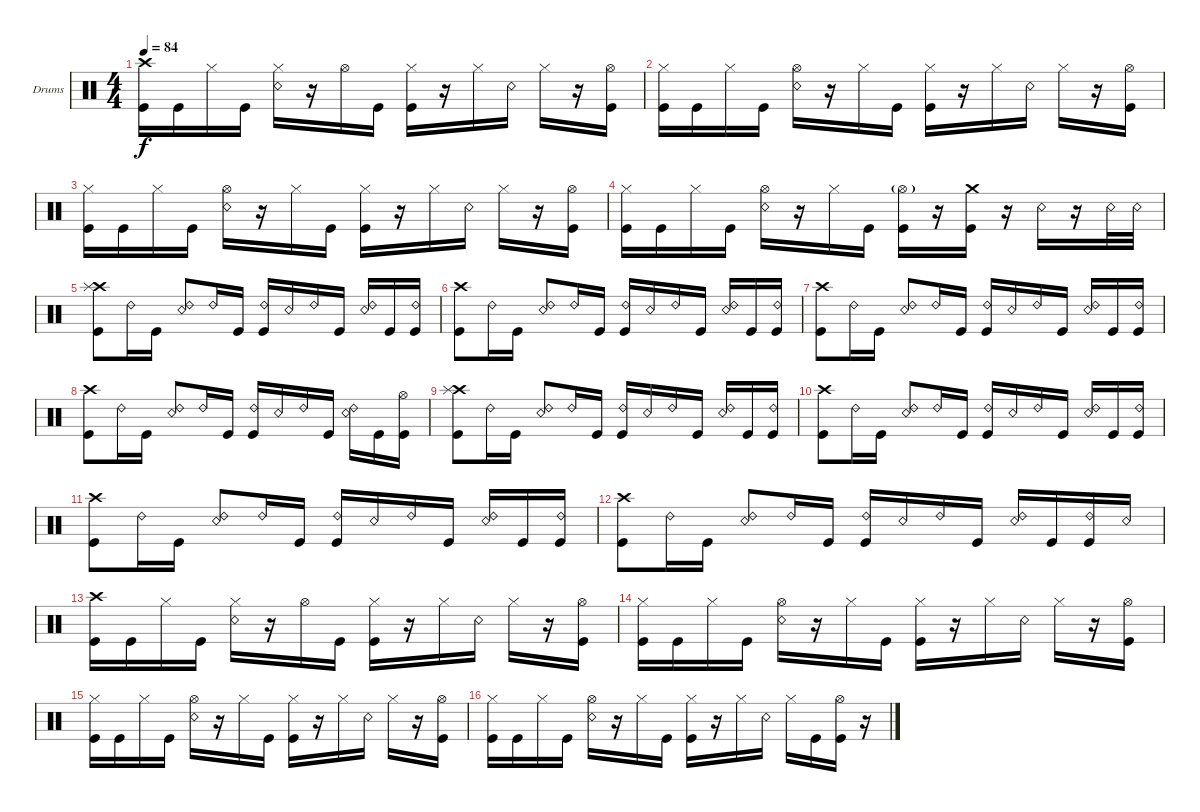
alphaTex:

\defaultSystemsLayout 4
\bracketExtendMode groupsimilarinstruments
\firstSystemTrackNameOrientation horizontal
\otherSystemsTrackNameOrientation horizontal
\track ("Drumkit" "Drums") {instrument percussion}
\staff {score}
\articulation defaults
\ts (4 4)
\tempo 84
\clef neutral
\scale
0.333333
\ks c
("Kick (hit)" "Crash high (hit)").16{dy f} "Kick (hit)".16 "Hi-Hat (closed)".16 "Kick (hit)".16 ("Snare (rim shot)" "Hi-Hat (closed)").16 r.16 "Hi-Hat (open)".16 "Kick (hit)".16 ("Kick (hit)" "Hi-Hat (closed)").16 r.16 "Hi-Hat (closed)".16 "Snare (rim shot)".16 "Hi-Hat (closed)".16 r.16 ("Kick (hit)" "Hi-Hat (open)").16 |
\scale
0.333333 ("Kick (hit)" "Hi-Hat (closed)").16 "Kick (hit)".16 "Hi-Hat (closed)".16 "Kick (hit)".16 ("Snare (rim shot)" "Hi-Hat (open)").16 r.16 "Hi-Hat (closed)".16 "Kick (hit)".16 ("Kick (hit)" "Hi-Hat (closed)").16 r.16 "Hi-Hat (closed)".16 "Snare (rim shot)".16 "Hi-Hat (closed)".16 r.16 ("Kick (hit)" "Hi-Hat (open)").16 |
\scale
0.333333 ("Kick (hit)" "Hi-Hat (closed)").16 "Kick (hit)".16 "Hi-Hat (closed)".16 "Kick (hit)".16 ("Snare (rim shot)" "Hi-Hat (open)").16 r.16 "Hi-Hat (closed)".16 "Kick (hit)".16 ("Kick (hit)" "Hi-Hat (closed)").16 r.16 "Hi-Hat (closed)".16 "Snare (rim shot)".16 "Hi-Hat (closed)".16 r.16 ("Kick (hit)" "Hi-Hat (open)").16 |
\scale
0.333333 ("Kick (hit)" "Hi-Hat (closed)").16 "Kick (hit)".16 "Hi-Hat (closed)".16 "Kick (hit)".16 ("Snare (rim shot)" "Hi-Hat (open)").16 r.16 "Hi-Hat (closed)".16 "Kick (hit)".16 ("Kick (hit)" "Hi-Hat (open)"{g}).16 r.16 ("Kick (hit)" "Crash medium (hit)").16 r.16 "Snare (rim shot)".16 r.16 "Snare (rim shot)".32 "Snare (rim shot)".32 |
\scale
0.333333 ("Kick (hit)" "Crash high (hit)" "Splash (hit)").8 "Ride (bell) 2".16 "Kick (hit)".16 ("Snare (rim shot)" "Ride (bell) 2").8 "Ride (bell) 2".16 "Kick (hit)".16 ("Kick (hit)" "Ride (bell) 2").16 "Snare (rim shot)".16 "Ride (bell) 2".16 "Kick (hit)".16 ("Snare (rim shot)" "Ride (bell) 2").16 "Kick (hit)".16 ("Kick (hit)" "Ride (bell) 2").16 |
\scale
0.333333 ("Kick (hit)" "Crash high (hit)").8 "Ride (bell) 2".16 "Kick (hit)".16 ("Snare (rim shot)" "Ride (bell) 2").8 "Ride (bell) 2".16 "Kick (hit)".16 ("Kick (hit)" "Ride (bell) 2").16 "Snare (rim shot)".16 "Ride (bell) 2".16 "Kick (hit)".16 ("Snare (rim shot)" "Ride (bell) 2").16 "Kick (hit)".16 ("Kick (hit)" "Ride (bell) 2").16 |
\scale
0.333333 ("Kick (hit)" "Crash high (hit)").8 "Ride (bell) 2".16 "Kick (hit)".16 ("Snare (rim shot)" "Ride (bell) 2").8 "Ride (bell) 2".16 "Kick (hit)".16 ("Kick (hit)" "Ride (bell) 2").16 "Snare (rim shot)".16 "Ride (bell) 2".16 "Kick (hit)".16 ("Snare (rim shot)" "Ride (bell) 2").16 "Kick (hit)".16 ("Kick (hit)" "Ride (bell) 2").16 |
\scale
0.333333 ("Kick (hit)" "Crash high (hit)").8 "Ride (bell) 2".16 "Kick (hit)".16 ("Snare (rim shot)" "Ride (bell) 2").8 "Ride (bell) 2".16 "Kick (hit)".16 ("Kick (hit)" "Ride (bell) 2").16 "Snare (rim shot)".16 "Ride (bell) 2".16 "Kick (hit)".16 ("Snare (rim shot)" "Ride (bell) 2").16 "Kick (hit)".16 ("Kick (hit)" "Hi-Hat (open)").16 |
\scale
0.333333 ("Kick (hit)" "Crash high (hit)" "Splash (hit)").8 "Ride (bell) 2".16 "Kick (hit)".16 ("Snare (rim shot)" "Ride (bell) 2").8 "Ride (bell) 2".16 "Kick (hit)".16 ("Kick (hit)" "Ride (bell) 2").16 "Snare (rim shot)".16 "Ride (bell) 2".16 "Kick (hit)".16 ("Snare (rim shot)" "Ride (bell) 2").16 "Kick (hit)".16 ("Kick (hit)" "Ride (bell) 2").16 |
\scale
0.333333 ("Kick (hit)" "Crash high (hit)").8 "Ride (bell) 2".16 "Kick (hit)".16 ("Snare (rim shot)" "Ride (bell) 2").8 "Ride (bell) 2".16 "Kick (hit)".16 ("Kick (hit)" "Ride (bell) 2").16 "Snare (rim shot)".16 "Ride (bell) 2".16 "Kick (hit)".16 ("Snare (rim shot)" "Ride (bell) 2").16 "Kick (hit)".16 ("Kick (hit)" "Ride (bell) 2").16 |
\scale
0.333333 ("Kick (hit)" "Crash high (hit)").8 "Ride (bell) 2".16 "Kick (hit)".16 ("Snare (rim shot)" "Ride (bell) 2").8 "Ride (bell) 2".16 "Kick (hit)".16 ("Kick (hit)" "Ride (bell) 2").16 "Snare (rim shot)".16 "Ride (bell) 2".16 "Kick (hit)".16 ("Snare (rim shot)" "Ride (bell) 2").16 "Kick (hit)".16 ("Kick (hit)" "Ride (bell) 2").16 |
\scale
0.333333 ("Kick (hit)" "Crash high (hit)").8 "Ride (bell) 2".16 "Kick (hit)".16 ("Snare (rim shot)" "Ride (bell) 2").8 "Ride (bell) 2".16 "Kick (hit)".16 ("Kick (hit)" "Ride (bell) 2").16 "Snare (rim shot)".16 "Ride (bell) 2".16 "Kick (hit)".16 ("Snare (rim shot)" "Ride (bell) 2").16 "Kick (hit)".16 ("Kick (hit)" "Ride (bell) 2").16 "Snare (rim shot)".16 |
\scale
0.333333 ("Kick (hit)" "Crash high (hit)").16 "Kick (hit)".16 "Hi-Hat (closed)".16 "Kick (hit)".16 ("Snare (rim shot)" "Hi-Hat (closed)").16 r.16 "Hi-Hat (open)".16 "Kick (hit)".16 ("Kick (hit)" "Hi-Hat (closed)").16 r.16 "Hi-Hat (closed)".16 "Snare (rim shot)".16 "Hi-Hat (closed)".16 r.16 ("Kick (hit)" "Hi-Hat (open)").16 |
\scale
0.333333 ("Kick (hit)" "Hi-Hat (closed)").16 "Kick (hit)".16 "Hi-Hat (closed)".16 "Kick (hit)".16 ("Snare (rim shot)" "Hi-Hat (open)").16 r.16 "Hi-Hat (closed)".16 "Kick (hit)".16 ("Kick (hit)" "Hi-Hat (closed)").16 r.16 "Hi-Hat (closed)".16 "Snare (rim shot)".16 "Hi-Hat (closed)".16 r.16 ("Kick (hit)" "Hi-Hat (open)").16 |
\scale
0.333333 ("Kick (hit)" "Hi-Hat (closed)").16 "Kick (hit)".16 "Hi-Hat (closed)".16 "Kick (hit)".16 ("Snare (rim shot)" "Hi-Hat (open)").16 r.16 "Hi-Hat (closed)".16 "Kick (hit)".16 ("Kick (hit)" "Hi-Hat (closed)").16 r.16 "Hi-Hat (closed)".16 "Snare (rim shot)".16 "Hi-Hat (closed)".16 r.16 ("Kick (hit)" "Hi-Hat (open)").16 |
\scale
0.333333 ("Kick (hit)" "Hi-Hat (closed)").16 "Kick (hit)".16 "Hi-Hat (closed)".16 "Kick (hit)".16 ("Snare (rim shot)" "Hi-Hat (open)").16 r.16 "Hi-Hat (closed)".16 "Kick (hit)".16 ("Kick (hit)" "Hi-Hat (closed)").16 r.16 "Hi-Hat (closed)".16 "Snare (rim shot)".16 "Hi-Hat (closed)".16 "Kick (hit)".16 ("Kick (hit)" "Hi-Hat (open)").16 r.16
